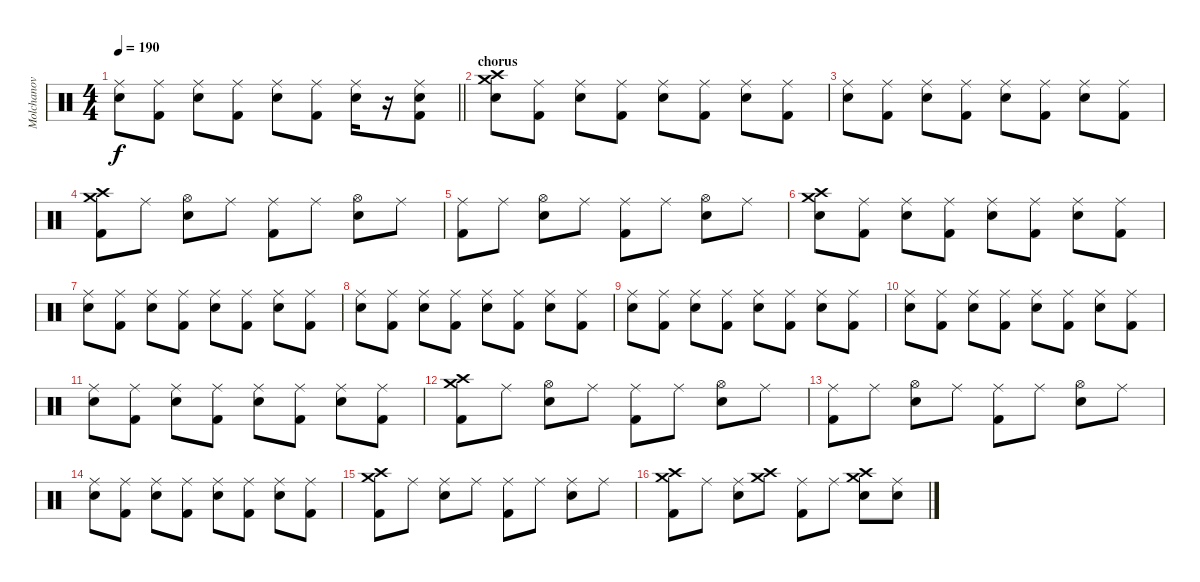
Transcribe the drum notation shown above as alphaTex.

\track ("Molchanov" "Molchanov") {instrument percussion}
\staff {score}
\articulation defaults
\ts (4 4)
\tempo 190
\clef neutral
\barLineRight lightlight
\ks c
("Ride (middle)" "Snare (hit) 2").8{dy f} ("Ride (middle)" "Kick (hit) 2").8 ("Ride (middle)" "Snare (hit) 2").8 ("Ride (middle)" "Kick (hit) 2").8 ("Ride (middle)" "Snare (hit) 2").8 ("Ride (middle)" "Kick (hit) 2").8 ("Ride (middle)" "Snare (hit) 2").16 r.16 ("Ride (middle)" "Snare (hit) 2" "Kick (hit) 2").8 |
\section ("" "chorus")
("Crash high (hit)" "Snare (hit) 2" "Crash medium (hit)").8 ("Ride (middle)" "Kick (hit) 2").8 ("Ride (middle)" "Snare (hit) 2").8 ("Ride (middle)" "Kick (hit) 2").8 ("Ride (middle)" "Snare (hit) 2").8 ("Ride (middle)" "Kick (hit) 2").8 ("Ride (middle)" "Snare (hit) 2").8 ("Ride (middle)" "Kick (hit) 2").8 |
("Ride (middle)" "Snare (hit) 2").8 ("Ride (middle)" "Kick (hit) 2").8 ("Ride (middle)" "Snare (hit) 2").8 ("Ride (middle)" "Kick (hit) 2").8 ("Ride (middle)" "Snare (hit) 2").8 ("Ride (middle)" "Kick (hit) 2").8 ("Ride (middle)" "Snare (hit) 2").8 ("Ride (middle)" "Kick (hit) 2").8 |
("Crash high (hit)" "Crash medium (hit)" "Kick (hit) 2").8 "Ride (middle)".8 ("Hi-Hat (open)" "Snare (hit) 2").8 "Ride (middle)".8 ("Ride (middle)" "Kick (hit) 2").8 "Ride (middle)".8 ("Hi-Hat (open)" "Snare (hit) 2").8 "Ride (middle)".8 |
("Ride (middle)" "Kick (hit) 2").8 "Ride (middle)".8 ("Hi-Hat (open)" "Snare (hit) 2").8 "Ride (middle)".8 ("Ride (middle)" "Kick (hit) 2").8 "Ride (middle)".8 ("Hi-Hat (open)" "Snare (hit) 2").8 "Ride (middle)".8 |
("Crash high (hit)" "Snare (hit) 2" "Crash medium (hit)").8 ("Ride (middle)" "Kick (hit) 2").8 ("Ride (middle)" "Snare (hit) 2").8 ("Ride (middle)" "Kick (hit) 2").8 ("Ride (middle)" "Snare (hit) 2").8 ("Ride (middle)" "Kick (hit) 2").8 ("Ride (middle)" "Snare (hit) 2").8 ("Ride (middle)" "Kick (hit) 2").8 |
("Ride (middle)" "Snare (hit) 2").8 ("Ride (middle)" "Kick (hit) 2").8 ("Ride (middle)" "Snare (hit) 2").8 ("Ride (middle)" "Kick (hit) 2").8 ("Ride (middle)" "Snare (hit) 2").8 ("Ride (middle)" "Kick (hit) 2").8 ("Ride (middle)" "Snare (hit) 2").8 ("Ride (middle)" "Kick (hit) 2").8 |
("Ride (middle)" "Snare (hit) 2").8 ("Ride (middle)" "Kick (hit) 2").8 ("Ride (middle)" "Snare (hit) 2").8 ("Ride (middle)" "Kick (hit) 2").8 ("Ride (middle)" "Snare (hit) 2").8 ("Ride (middle)" "Kick (hit) 2").8 ("Ride (middle)" "Snare (hit) 2").8 ("Ride (middle)" "Kick (hit) 2").8 |
("Ride (middle)" "Snare (hit) 2").8 ("Ride (middle)" "Kick (hit) 2").8 ("Ride (middle)" "Snare (hit) 2").8 ("Ride (middle)" "Kick (hit) 2").8 ("Ride (middle)" "Snare (hit) 2").8 ("Ride (middle)" "Kick (hit) 2").8 ("Ride (middle)" "Snare (hit) 2").8 ("Ride (middle)" "Kick (hit) 2").8 |
("Ride (middle)" "Snare (hit) 2").8 ("Ride (middle)" "Kick (hit) 2").8 ("Ride (middle)" "Snare (hit) 2").8 ("Ride (middle)" "Kick (hit) 2").8 ("Ride (middle)" "Snare (hit) 2").8 ("Ride (middle)" "Kick (hit) 2").8 ("Ride (middle)" "Snare (hit) 2").8 ("Ride (middle)" "Kick (hit) 2").8 |
("Ride (middle)" "Snare (hit) 2").8 ("Ride (middle)" "Kick (hit) 2").8 ("Ride (middle)" "Snare (hit) 2").8 ("Ride (middle)" "Kick (hit) 2").8 ("Ride (middle)" "Snare (hit) 2").8 ("Ride (middle)" "Kick (hit) 2").8 ("Ride (middle)" "Snare (hit) 2").8 ("Ride (middle)" "Kick (hit) 2").8 |
("Crash high (hit)" "Crash medium (hit)" "Kick (hit) 2").8 "Ride (middle)".8 ("Hi-Hat (open)" "Snare (hit) 2").8 "Ride (middle)".8 ("Ride (middle)" "Kick (hit) 2").8 "Ride (middle)".8 ("Hi-Hat (open)" "Snare (hit) 2").8 "Ride (middle)".8 |
("Ride (middle)" "Kick (hit) 2").8 "Ride (middle)".8 ("Hi-Hat (open)" "Snare (hit) 2").8 "Ride (middle)".8 ("Ride (middle)" "Kick (hit) 2").8 "Ride (middle)".8 ("Hi-Hat (open)" "Snare (hit) 2").8 "Ride (middle)".8 |
("Ride (middle)" "Snare (hit) 2").8 ("Ride (middle)" "Kick (hit) 2").8 ("Ride (middle)" "Snare (hit) 2").8 ("Ride (middle)" "Kick (hit) 2").8 ("Ride (middle)" "Snare (hit) 2").8 ("Ride (middle)" "Kick (hit) 2").8 ("Ride (middle)" "Snare (hit) 2").8 ("Ride (middle)" "Kick (hit) 2").8 |
("Crash high (hit)" "Crash medium (hit)" "Kick (hit) 2").8 "Ride (middle)".8 ("Ride (middle)" "Snare (hit) 2").8 "Ride (middle)".8 ("Ride (middle)" "Kick (hit) 2").8 "Ride (middle)".8 ("Ride (middle)" "Snare (hit) 2").8 "Ride (middle)".8 |
("Crash high (hit)" "Crash medium (hit)" "Kick (hit) 2").8 "Ride (middle)".8 ("Ride (middle)" "Snare (hit) 2").8 ("Crash high (hit)" "Crash medium (hit)").8 ("Ride (middle)" "Kick (hit) 2").8 "Ride (middle)".8 ("Crash high (hit)" "Snare (hit) 2" "Crash medium (hit)").8 ("Ride (middle)" "Snare (hit) 2").8
